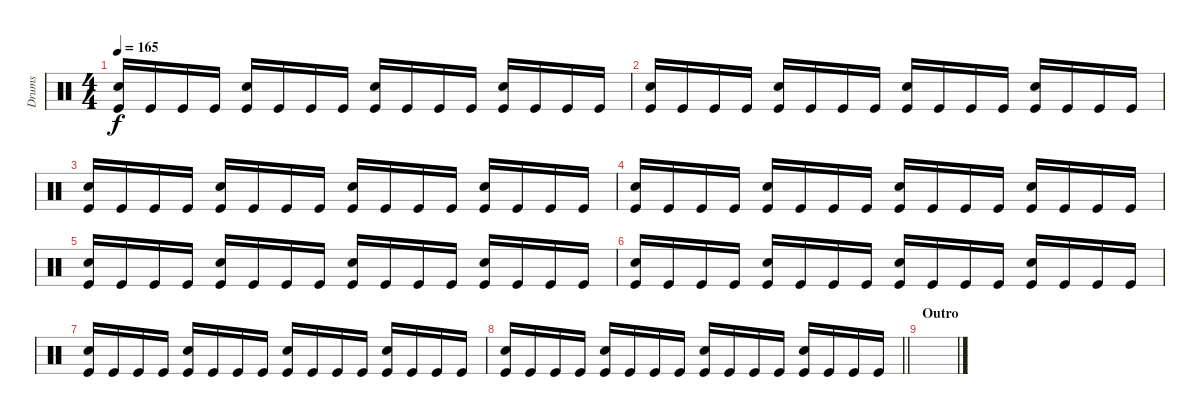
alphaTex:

\track ("Drums" "Drums") {instrument percussion}
\staff {score}
\articulation defaults
\ts (4 4)
\tempo 165
\clef neutral
\ks c
("Kick (hit)" "Snare (hit) 2").16{dy f} "Kick (hit)".16 "Kick (hit)".16 "Kick (hit)".16 ("Kick (hit)" "Snare (hit) 2").16 "Kick (hit)".16 "Kick (hit)".16 "Kick (hit)".16 ("Kick (hit)" "Snare (hit) 2").16 "Kick (hit)".16 "Kick (hit)".16 "Kick (hit)".16 ("Kick (hit)" "Snare (hit) 2").16 "Kick (hit)".16 "Kick (hit)".16 "Kick (hit)".16 |
("Kick (hit)" "Snare (hit) 2").16 "Kick (hit)".16 "Kick (hit)".16 "Kick (hit)".16 ("Kick (hit)" "Snare (hit) 2").16 "Kick (hit)".16 "Kick (hit)".16 "Kick (hit)".16 ("Kick (hit)" "Snare (hit) 2").16 "Kick (hit)".16 "Kick (hit)".16 "Kick (hit)".16 ("Kick (hit)" "Snare (hit) 2").16 "Kick (hit)".16 "Kick (hit)".16 "Kick (hit)".16 |
("Kick (hit)" "Snare (hit) 2").16 "Kick (hit)".16 "Kick (hit)".16 "Kick (hit)".16 ("Kick (hit)" "Snare (hit) 2").16 "Kick (hit)".16 "Kick (hit)".16 "Kick (hit)".16 ("Kick (hit)" "Snare (hit) 2").16 "Kick (hit)".16 "Kick (hit)".16 "Kick (hit)".16 ("Kick (hit)" "Snare (hit) 2").16 "Kick (hit)".16 "Kick (hit)".16 "Kick (hit)".16 |
("Kick (hit)" "Snare (hit) 2").16 "Kick (hit)".16 "Kick (hit)".16 "Kick (hit)".16 ("Kick (hit)" "Snare (hit) 2").16 "Kick (hit)".16 "Kick (hit)".16 "Kick (hit)".16 ("Kick (hit)" "Snare (hit) 2").16 "Kick (hit)".16 "Kick (hit)".16 "Kick (hit)".16 ("Kick (hit)" "Snare (hit) 2").16 "Kick (hit)".16 "Kick (hit)".16 "Kick (hit)".16 |
("Kick (hit)" "Snare (hit) 2").16 "Kick (hit)".16 "Kick (hit)".16 "Kick (hit)".16 ("Kick (hit)" "Snare (hit) 2").16 "Kick (hit)".16 "Kick (hit)".16 "Kick (hit)".16 ("Kick (hit)" "Snare (hit) 2").16 "Kick (hit)".16 "Kick (hit)".16 "Kick (hit)".16 ("Kick (hit)" "Snare (hit) 2").16 "Kick (hit)".16 "Kick (hit)".16 "Kick (hit)".16 |
("Kick (hit)" "Snare (hit) 2").16 "Kick (hit)".16 "Kick (hit)".16 "Kick (hit)".16 ("Kick (hit)" "Snare (hit) 2").16 "Kick (hit)".16 "Kick (hit)".16 "Kick (hit)".16 ("Kick (hit)" "Snare (hit) 2").16 "Kick (hit)".16 "Kick (hit)".16 "Kick (hit)".16 ("Kick (hit)" "Snare (hit) 2").16 "Kick (hit)".16 "Kick (hit)".16 "Kick (hit)".16 |
("Kick (hit)" "Snare (hit) 2").16 "Kick (hit)".16 "Kick (hit)".16 "Kick (hit)".16 ("Kick (hit)" "Snare (hit) 2").16 "Kick (hit)".16 "Kick (hit)".16 "Kick (hit)".16 ("Kick (hit)" "Snare (hit) 2").16 "Kick (hit)".16 "Kick (hit)".16 "Kick (hit)".16 ("Kick (hit)" "Snare (hit) 2").16 "Kick (hit)".16 "Kick (hit)".16 "Kick (hit)".16 |
\barLineRight lightlight
("Kick (hit)" "Snare (hit) 2").16 "Kick (hit)".16 "Kick (hit)".16 "Kick (hit)".16 ("Kick (hit)" "Snare (hit) 2").16 "Kick (hit)".16 "Kick (hit)".16 "Kick (hit)".16 ("Kick (hit)" "Snare (hit) 2").16 "Kick (hit)".16 "Kick (hit)".16 "Kick (hit)".16 ("Kick (hit)" "Snare (hit) 2").16 "Kick (hit)".16 "Kick (hit)".16 "Kick (hit)".16 |
\section ("" "Outro")
